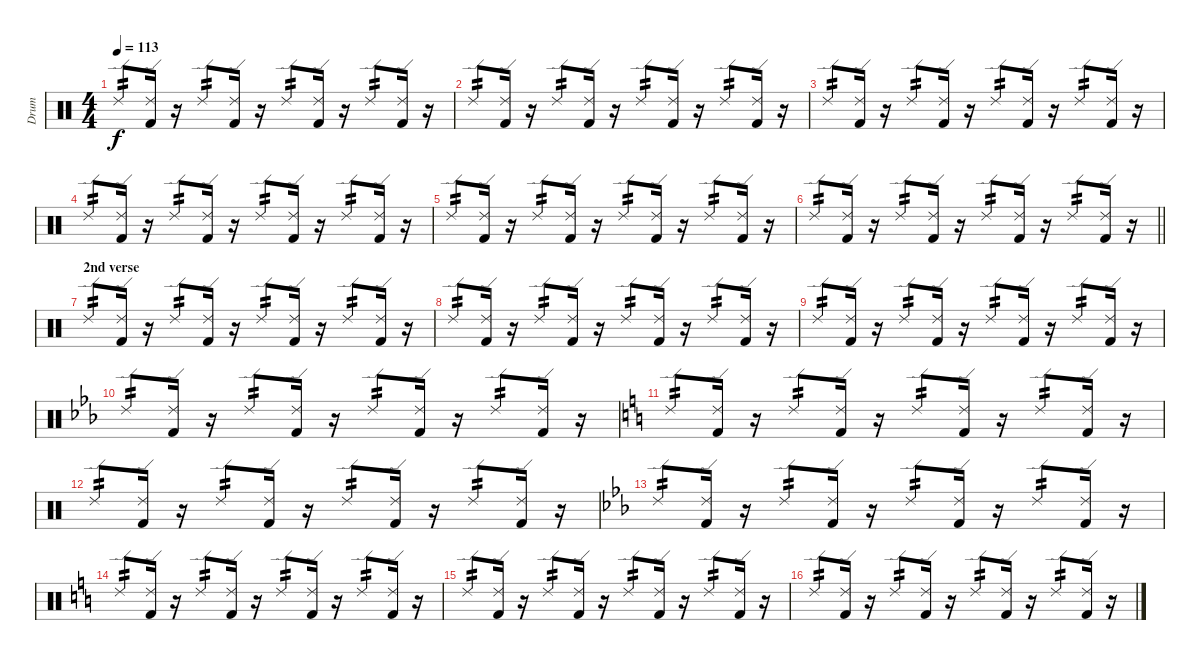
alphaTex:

\track ("Drum" "Drum") {instrument percussion}
\staff {score}
\articulation defaults
\ts (4 4)
\tempo 113
\clef neutral
\ks c "Ride (edge) 2".8{tp 2 dy f}
("Ride (edge) 2" "Kick (hit) 2").16 r.16 "Ride (edge) 2".8{tp 2} ("Ride (edge) 2" "Kick (hit) 2").16 r.16 "Ride (edge) 2".8{tp 2} ("Ride (edge) 2" "Kick (hit) 2").16 r.16 "Ride (edge) 2".8{tp 2} ("Ride (edge) 2" "Kick (hit) 2").16 r.16 |
"Ride (edge) 2".8{tp 2} ("Ride (edge) 2" "Kick (hit) 2").16 r.16 "Ride (edge) 2".8{tp 2} ("Ride (edge) 2" "Kick (hit) 2").16 r.16 "Ride (edge) 2".8{tp 2} ("Ride (edge) 2" "Kick (hit) 2").16 r.16 "Ride (edge) 2".8{tp 2} ("Ride (edge) 2" "Kick (hit) 2").16 r.16 |
"Ride (edge) 2".8{tp 2} ("Ride (edge) 2" "Kick (hit) 2").16 r.16 "Ride (edge) 2".8{tp 2} ("Ride (edge) 2" "Kick (hit) 2").16 r.16 "Ride (edge) 2".8{tp 2} ("Ride (edge) 2" "Kick (hit) 2").16 r.16 "Ride (edge) 2".8{tp 2} ("Ride (edge) 2" "Kick (hit) 2").16 r.16 |
"Ride (edge) 2".8{tp 2} ("Ride (edge) 2" "Kick (hit) 2").16 r.16 "Ride (edge) 2".8{tp 2} ("Ride (edge) 2" "Kick (hit) 2").16 r.16 "Ride (edge) 2".8{tp 2} ("Ride (edge) 2" "Kick (hit) 2").16 r.16 "Ride (edge) 2".8{tp 2} ("Ride (edge) 2" "Kick (hit) 2").16 r.16 |
"Ride (edge) 2".8{tp 2} ("Ride (edge) 2" "Kick (hit) 2").16 r.16 "Ride (edge) 2".8{tp 2} ("Ride (edge) 2" "Kick (hit) 2").16 r.16 "Ride (edge) 2".8{tp 2} ("Ride (edge) 2" "Kick (hit) 2").16 r.16 "Ride (edge) 2".8{tp 2} ("Ride (edge) 2" "Kick (hit) 2").16 r.16 |
\barLineRight lightlight "Ride (edge) 2".8{tp 2}
("Ride (edge) 2" "Kick (hit) 2").16 r.16 "Ride (edge) 2".8{tp 2} ("Ride (edge) 2" "Kick (hit) 2").16 r.16 "Ride (edge) 2".8{tp 2} ("Ride (edge) 2" "Kick (hit) 2").16 r.16 "Ride (edge) 2".8{tp 2} ("Ride (edge) 2" "Kick (hit) 2").16 r.16 |
\section ("" "2nd verse")
"Ride (edge) 2".8{tp 2} ("Ride (edge) 2" "Kick (hit) 2").16 r.16 "Ride (edge) 2".8{tp 2} ("Ride (edge) 2" "Kick (hit) 2").16 r.16 "Ride (edge) 2".8{tp 2} ("Ride (edge) 2" "Kick (hit) 2").16 r.16 "Ride (edge) 2".8{tp 2} ("Ride (edge) 2" "Kick (hit) 2").16 r.16 |
"Ride (edge) 2".8{tp 2} ("Ride (edge) 2" "Kick (hit) 2").16 r.16 "Ride (edge) 2".8{tp 2} ("Ride (edge) 2" "Kick (hit) 2").16 r.16 "Ride (edge) 2".8{tp 2} ("Ride (edge) 2" "Kick (hit) 2").16 r.16 "Ride (edge) 2".8{tp 2} ("Ride (edge) 2" "Kick (hit) 2").16 r.16 |
"Ride (edge) 2".8{tp 2} ("Ride (edge) 2" "Kick (hit) 2").16 r.16 "Ride (edge) 2".8{tp 2} ("Ride (edge) 2" "Kick (hit) 2").16 r.16 "Ride (edge) 2".8{tp 2} ("Ride (edge) 2" "Kick (hit) 2").16 r.16 "Ride (edge) 2".8{tp 2} ("Ride (edge) 2" "Kick (hit) 2").16 r.16 |
\ks eb "Ride (edge) 2".8{tp 2}
("Ride (edge) 2" "Kick (hit) 2").16 r.16 "Ride (edge) 2".8{tp 2} ("Ride (edge) 2" "Kick (hit) 2").16 r.16 "Ride (edge) 2".8{tp 2} ("Ride (edge) 2" "Kick (hit) 2").16 r.16 "Ride (edge) 2".8{tp 2} ("Ride (edge) 2" "Kick (hit) 2").16 r.16 |
\ks c "Ride (edge) 2".8{tp 2}
("Ride (edge) 2" "Kick (hit) 2").16 r.16 "Ride (edge) 2".8{tp 2} ("Ride (edge) 2" "Kick (hit) 2").16 r.16 "Ride (edge) 2".8{tp 2} ("Ride (edge) 2" "Kick (hit) 2").16 r.16 "Ride (edge) 2".8{tp 2} ("Ride (edge) 2" "Kick (hit) 2").16 r.16 |
"Ride (edge) 2".8{tp 2} ("Ride (edge) 2" "Kick (hit) 2").16 r.16 "Ride (edge) 2".8{tp 2} ("Ride (edge) 2" "Kick (hit) 2").16 r.16 "Ride (edge) 2".8{tp 2} ("Ride (edge) 2" "Kick (hit) 2").16 r.16 "Ride (edge) 2".8{tp 2} ("Ride (edge) 2" "Kick (hit) 2").16 r.16 |
\ks eb "Ride (edge) 2".8{tp 2}
("Ride (edge) 2" "Kick (hit) 2").16 r.16 "Ride (edge) 2".8{tp 2} ("Ride (edge) 2" "Kick (hit) 2").16 r.16 "Ride (edge) 2".8{tp 2} ("Ride (edge) 2" "Kick (hit) 2").16 r.16 "Ride (edge) 2".8{tp 2} ("Ride (edge) 2" "Kick (hit) 2").16 r.16 |
\ks c "Ride (edge) 2".8{tp 2}
("Ride (edge) 2" "Kick (hit) 2").16 r.16 "Ride (edge) 2".8{tp 2} ("Ride (edge) 2" "Kick (hit) 2").16 r.16 "Ride (edge) 2".8{tp 2} ("Ride (edge) 2" "Kick (hit) 2").16 r.16 "Ride (edge) 2".8{tp 2} ("Ride (edge) 2" "Kick (hit) 2").16 r.16 |
"Ride (edge) 2".8{tp 2} ("Ride (edge) 2" "Kick (hit) 2").16 r.16 "Ride (edge) 2".8{tp 2} ("Ride (edge) 2" "Kick (hit) 2").16 r.16 "Ride (edge) 2".8{tp 2} ("Ride (edge) 2" "Kick (hit) 2").16 r.16 "Ride (edge) 2".8{tp 2} ("Ride (edge) 2" "Kick (hit) 2").16 r.16 |
"Ride (edge) 2".8{tp 2} ("Ride (edge) 2" "Kick (hit) 2").16 r.16 "Ride (edge) 2".8{tp 2} ("Ride (edge) 2" "Kick (hit) 2").16 r.16 "Ride (edge) 2".8{tp 2} ("Ride (edge) 2" "Kick (hit) 2").16 r.16 "Ride (edge) 2".8{tp 2} ("Ride (edge) 2" "Kick (hit) 2").16 r.16
